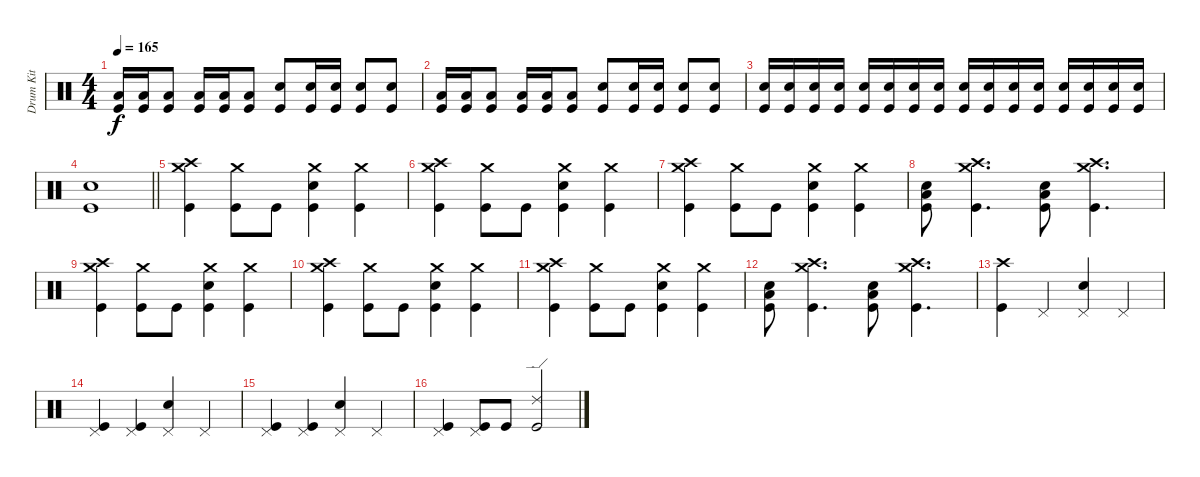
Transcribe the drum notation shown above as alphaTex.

\track ("Drum Kit" "Drum Kit") {instrument percussion}
\staff {score}
\articulation defaults
\ts (4 4)
\tempo 165
\clef neutral
\ks c
("Low Floor Tom (hit)" "Kick (hit)").16{dy f} ("Low Floor Tom (hit)" "Kick (hit)").16 ("Low Floor Tom (hit)" "Kick (hit)").8 ("Low Floor Tom (hit)" "Kick (hit)").16 ("Low Floor Tom (hit)" "Kick (hit)").16 ("Low Floor Tom (hit)" "Kick (hit)").8 ("Snare (hit) 2" "Kick (hit)").8 ("Snare (hit) 2" "Kick (hit)").16 ("Snare (hit) 2" "Kick (hit)").16 ("Snare (hit) 2" "Kick (hit)").8 ("Snare (hit) 2" "Kick (hit)").8 |
("Low Floor Tom (hit)" "Kick (hit)").16 ("Low Floor Tom (hit)" "Kick (hit)").16 ("Low Floor Tom (hit)" "Kick (hit)").8 ("Low Floor Tom (hit)" "Kick (hit)").16 ("Low Floor Tom (hit)" "Kick (hit)").16 ("Low Floor Tom (hit)" "Kick (hit)").8 ("Snare (hit) 2" "Kick (hit)").8 ("Snare (hit) 2" "Kick (hit)").16 ("Snare (hit) 2" "Kick (hit)").16 ("Snare (hit) 2" "Kick (hit)").8 ("Snare (hit) 2" "Kick (hit)").8 |
("Snare (hit) 2" "Kick (hit)").16 ("Snare (hit) 2" "Kick (hit)").16 ("Snare (hit) 2" "Kick (hit)").16 ("Snare (hit) 2" "Kick (hit)").16 ("Snare (hit) 2" "Kick (hit)").16 ("Snare (hit) 2" "Kick (hit)").16 ("Snare (hit) 2" "Kick (hit)").16 ("Snare (hit) 2" "Kick (hit)").16 ("Snare (hit) 2" "Kick (hit)").16 ("Snare (hit) 2" "Kick (hit)").16 ("Snare (hit) 2" "Kick (hit)").16 ("Snare (hit) 2" "Kick (hit)").16 ("Snare (hit) 2" "Kick (hit)").16 ("Snare (hit) 2" "Kick (hit)").16 ("Snare (hit) 2" "Kick (hit)").16 ("Snare (hit) 2" "Kick (hit)").16 |
\barLineRight lightlight
("Snare (hit) 2" "Kick (hit)").1 |
("Crash high (hit)" "Crash medium (hit)" "Kick (hit)").4 ("Crash medium (hit)" "Kick (hit)").8 "Kick (hit)".8 ("Snare (hit) 2" "Crash medium (hit)" "Kick (hit)").4 ("Crash medium (hit)" "Kick (hit)").4 |
("Crash high (hit)" "Crash medium (hit)" "Kick (hit)").4 ("Crash medium (hit)" "Kick (hit)").8 "Kick (hit)".8 ("Snare (hit) 2" "Crash medium (hit)" "Kick (hit)").4 ("Crash medium (hit)" "Kick (hit)").4 |
("Crash high (hit)" "Crash medium (hit)" "Kick (hit)").4 ("Crash medium (hit)" "Kick (hit)").8 "Kick (hit)".8 ("Snare (hit) 2" "Crash medium (hit)" "Kick (hit)").4 ("Crash medium (hit)" "Kick (hit)").4 |
("Snare (hit) 2" "Low Floor Tom (hit)" "Kick (hit)").8 ("Crash high (hit)" "Crash medium (hit)" "Kick (hit)").4{d} ("Snare (hit) 2" "Low Floor Tom (hit)" "Kick (hit)").8 ("Crash high (hit)" "Crash medium (hit)" "Kick (hit)").4{d} |
("Crash high (hit)" "Crash medium (hit)" "Kick (hit)").4 ("Crash medium (hit)" "Kick (hit)").8 "Kick (hit)".8 ("Snare (hit) 2" "Crash medium (hit)" "Kick (hit)").4 ("Crash medium (hit)" "Kick (hit)").4 |
("Crash high (hit)" "Crash medium (hit)" "Kick (hit)").4 ("Crash medium (hit)" "Kick (hit)").8 "Kick (hit)".8 ("Snare (hit) 2" "Crash medium (hit)" "Kick (hit)").4 ("Crash medium (hit)" "Kick (hit)").4 |
("Crash high (hit)" "Crash medium (hit)" "Kick (hit)").4 ("Crash medium (hit)" "Kick (hit)").8 "Kick (hit)".8 ("Snare (hit) 2" "Crash medium (hit)" "Kick (hit)").4 ("Crash medium (hit)" "Kick (hit)").4 |
("Snare (hit) 2" "Low Floor Tom (hit)" "Kick (hit)").8 ("Crash high (hit)" "Crash medium (hit)" "Kick (hit)").4{d} ("Snare (hit) 2" "Low Floor Tom (hit)" "Kick (hit)").8 ("Crash high (hit)" "Crash medium (hit)" "Kick (hit)").4{d} |
("Crash high (hit)" "Kick (hit)").4 "Pedal Hi-Hat (hit)".4 ("Pedal Hi-Hat (hit)" "Snare (hit) 2").4 "Pedal Hi-Hat (hit)".4 |
("Pedal Hi-Hat (hit)" "Kick (hit)").4 ("Pedal Hi-Hat (hit)" "Kick (hit)").4 ("Pedal Hi-Hat (hit)" "Snare (hit) 2").4 "Pedal Hi-Hat (hit)".4 |
("Pedal Hi-Hat (hit)" "Kick (hit)").4 ("Pedal Hi-Hat (hit)" "Kick (hit)").4 ("Pedal Hi-Hat (hit)" "Snare (hit) 2").4 "Pedal Hi-Hat (hit)".4 |
("Pedal Hi-Hat (hit)" "Kick (hit)").4 ("Pedal Hi-Hat (hit)" "Kick (hit)").8 "Kick (hit)".8 ("Ride (edge) 2" "Kick (hit)").2
